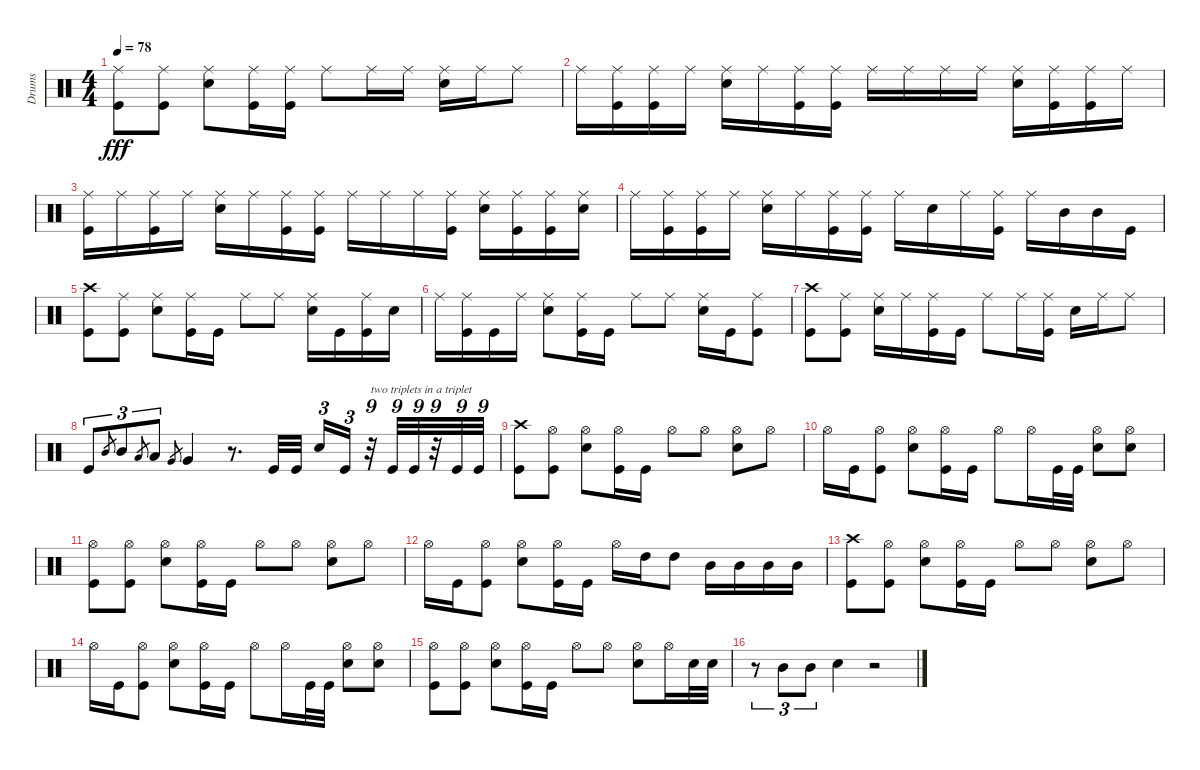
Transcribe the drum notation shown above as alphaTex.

\track ("Drums" "Drums") {instrument percussion}
\staff {score}
\articulation defaults
\ts (4 4)
\tempo 78
\clef neutral
\ks c
("Ride (middle)" "Kick (hit)").8{dy fff} ("Ride (middle)" "Kick (hit)").8 ("Ride (middle)" "Snare (hit) 2").8 ("Ride (middle)" "Kick (hit)").16 ("Ride (middle)" "Kick (hit)").16 "Ride (middle)".8 "Ride (middle)".16 "Ride (middle)".16 ("Ride (middle)" "Snare (hit) 2").16 "Ride (middle)".16 "Ride (middle)".8 |
"Ride (middle)".16 ("Ride (middle)" "Kick (hit)").16 ("Ride (middle)" "Kick (hit)").16 "Ride (middle)".16 ("Ride (middle)" "Snare (hit) 2").16 "Ride (middle)".16 ("Ride (middle)" "Kick (hit)").16 ("Ride (middle)" "Kick (hit)").16 "Ride (middle)".16 "Ride (middle)".16 "Ride (middle)".16 "Ride (middle)".16 ("Ride (middle)" "Snare (hit) 2").16 ("Ride (middle)" "Kick (hit)").16 ("Ride (middle)" "Kick (hit)").16 "Ride (middle)".16 |
("Ride (middle)" "Kick (hit)").16 "Ride (middle)".16 ("Ride (middle)" "Kick (hit)").16 "Ride (middle)".16 ("Ride (middle)" "Snare (hit) 2").16 "Ride (middle)".16 ("Ride (middle)" "Kick (hit)").16 ("Ride (middle)" "Kick (hit)").16 "Ride (middle)".16 "Ride (middle)".16 "Ride (middle)".16 ("Ride (middle)" "Kick (hit)").16 ("Ride (middle)" "Snare (hit) 2").16 ("Ride (middle)" "Kick (hit)").16 ("Ride (middle)" "Kick (hit)").16 ("Ride (middle)" "Snare (hit) 2").16 |
"Ride (middle)".16 ("Ride (middle)" "Kick (hit)").16 ("Ride (middle)" "Kick (hit)").16 "Ride (middle)".16 ("Ride (middle)" "Snare (hit) 2").16 "Ride (middle)".16 ("Ride (middle)" "Kick (hit)").16 ("Ride (middle)" "Kick (hit)").16 "Ride (middle)".16 "Snare (hit) 2".16 "Ride (middle)".16 ("Ride (middle)" "Kick (hit)").16 "Ride (middle)".16 "Mid Tom (hit)".16 "Mid Tom (hit)".16 "Kick (hit)".16 |
("Crash high (hit)" "Kick (hit)").8 ("Ride (middle)" "Kick (hit)").8 ("Ride (middle)" "Snare (hit) 2").8 ("Ride (middle)" "Kick (hit)").16 "Kick (hit)".16 "Ride (middle)".8 "Ride (middle)".8 ("Ride (middle)" "Snare (hit) 2").16 "Kick (hit)".16 ("Ride (middle)" "Kick (hit)").16 "Snare (hit) 2".16 |
"Ride (middle)".16 ("Ride (middle)" "Kick (hit)").16 "Kick (hit)".16 "Ride (middle)".16 ("Ride (middle)" "Snare (hit) 2").8 ("Ride (middle)" "Kick (hit)").16 "Kick (hit)".16 "Ride (middle)".8 "Ride (middle)".8 ("Ride (middle)" "Snare (hit) 2").16 "Kick (hit)".16 ("Ride (middle)" "Kick (hit)").8 |
("Crash high (hit)" "Kick (hit)").8 ("Ride (middle)" "Kick (hit)").8 ("Ride (middle)" "Snare (hit) 2").16 "Ride (middle)".16 ("Ride (middle)" "Kick (hit)").16 "Kick (hit)".16 "Ride (middle)".8 "Ride (middle)".16 ("Ride (middle)" "Kick (hit)").16 "Snare (hit) 2".16 "Ride (middle)".16 "Ride (middle)".8 |
"Kick (hit)".8{tu (3 2)} "Mid Tom (hit)".8{gr} "Mid Tom (hit)".8{tu (3 2)} "Low Tom (hit)".8{gr} "Low Tom (hit)".8{tu (3 2)} "Very Low Tom (hit)".8{gr} "Very Low Tom (hit)".4 r.8{d} "Kick (hit)".32 "Kick (hit)".32 "Snare (hit) 2".16{tu (3 2)} "Kick (hit)".16{tu (3 2)} r.32{tu (9 8) txt "two triplets in a triplet"} "Kick (hit)".32{tu (9 8)} "Kick (hit)".32{tu (9 8)} r.32{tu (9 8)} "Kick (hit)".32{tu (9 8)} "Kick (hit)".32{tu (9 8)} |
("Crash high (hit)" "Kick (hit)").8 ("Hi-Hat (open)" "Kick (hit)").8 ("Hi-Hat (open)" "Snare (hit) 2").8 ("Hi-Hat (open)" "Kick (hit)").16 "Kick (hit)".16 "Hi-Hat (open)".8 "Hi-Hat (open)".8 ("Hi-Hat (open)" "Snare (hit) 2").8 "Hi-Hat (open)".8 |
"Hi-Hat (open)".16 "Kick (hit)".16 ("Hi-Hat (open)" "Kick (hit)").8 ("Hi-Hat (open)" "Snare (hit) 2").8 ("Hi-Hat (open)" "Kick (hit)").16 "Kick (hit)".16 "Hi-Hat (open)".8 "Hi-Hat (open)".16 "Kick (hit)".32 "Kick (hit)".32 ("Hi-Hat (open)" "Snare (hit) 2").8 ("Hi-Hat (open)" "Snare (hit) 2").8 |
("Hi-Hat (open)" "Kick (hit)").8 ("Hi-Hat (open)" "Kick (hit)").8 ("Hi-Hat (open)" "Snare (hit) 2").8 ("Hi-Hat (open)" "Kick (hit)").16 "Kick (hit)".16 "Hi-Hat (open)".8 "Hi-Hat (open)".8 ("Hi-Hat (open)" "Snare (hit) 2").8 "Hi-Hat (open)".8 |
"Hi-Hat (open)".16 "Kick (hit)".16 ("Hi-Hat (open)" "Kick (hit)").8 ("Hi-Hat (open)" "Snare (hit) 2").8 ("Hi-Hat (open)" "Kick (hit)").16 "Kick (hit)".16 "Hi-Hat (open)".16 "High Tom (hit)".16 "High Tom (hit)".8 "Mid Tom (hit)".16 "Mid Tom (hit)".16 "Mid Tom (hit)".16 "Mid Tom (hit)".16 |
("Crash high (hit)" "Kick (hit)").8 ("Hi-Hat (open)" "Kick (hit)").8 ("Hi-Hat (open)" "Snare (hit) 2").8 ("Hi-Hat (open)" "Kick (hit)").16 "Kick (hit)".16 "Hi-Hat (open)".8 "Hi-Hat (open)".8 ("Hi-Hat (open)" "Snare (hit) 2").8 "Hi-Hat (open)".8 |
"Hi-Hat (open)".16 "Kick (hit)".16 ("Hi-Hat (open)" "Kick (hit)").8 ("Hi-Hat (open)" "Snare (hit) 2").8 ("Hi-Hat (open)" "Kick (hit)").16 "Kick (hit)".16 "Hi-Hat (open)".8 "Hi-Hat (open)".16 "Kick (hit)".32 "Kick (hit)".32 ("Hi-Hat (open)" "Snare (hit) 2").8 ("Hi-Hat (open)" "Snare (hit) 2").8 |
("Hi-Hat (open)" "Kick (hit)").8 ("Hi-Hat (open)" "Kick (hit)").8 ("Hi-Hat (open)" "Snare (hit) 2").8 ("Hi-Hat (open)" "Kick (hit)").16 "Kick (hit)".16 "Hi-Hat (open)".8 "Hi-Hat (open)".8 ("Hi-Hat (open)" "Snare (hit) 2").8 "Hi-Hat (open)".16 "Snare (hit) 2".32 "Snare (hit) 2".32 |
r.8{tu (3 2)} "Mid Tom (hit)".8{tu (3 2)} "Mid Tom (hit)".8{tu (3 2)} "Snare (hit) 2".4 r.2
